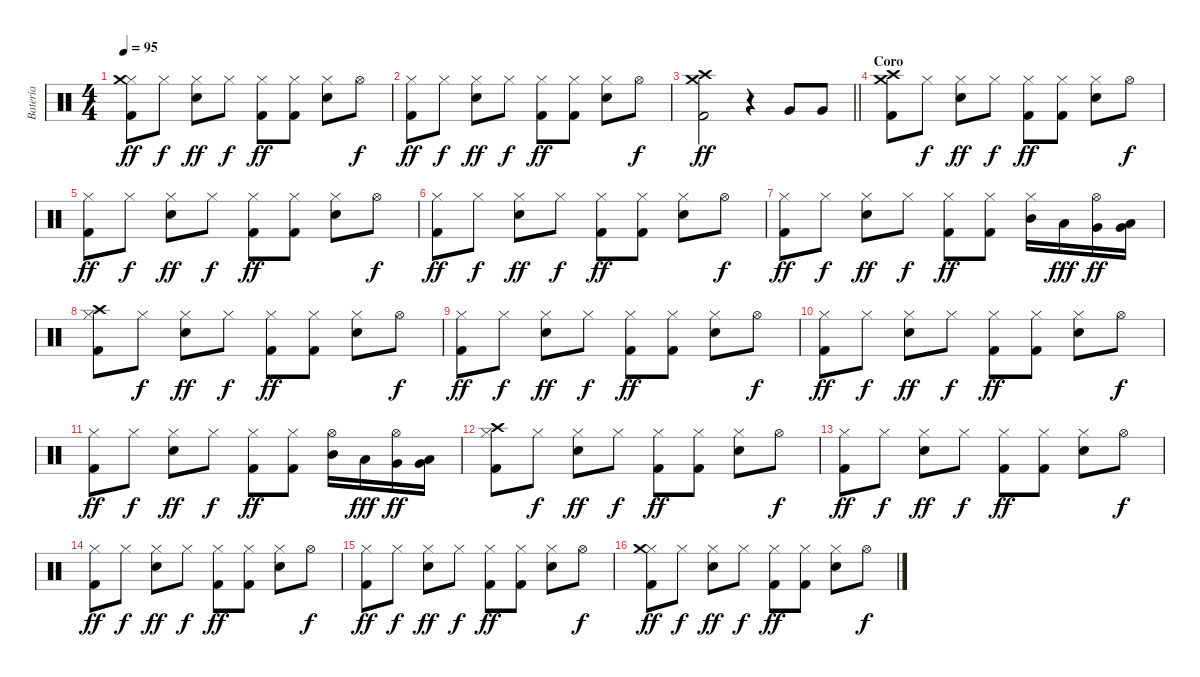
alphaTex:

\track ("Batería" "Batería") {instrument percussion}
\staff {score}
\articulation defaults
\ts (4 4)
\tempo 95
\clef neutral
\ks c
("Hi-Hat (closed)" "Crash medium (hit)" "Kick (hit) 2").8{dy ff} "Hi-Hat (closed)".8{dy f} ("Hi-Hat (closed)" "Electric Snare (hit)").8{dy ff} "Hi-Hat (closed)".8{dy f} ("Hi-Hat (closed)" "Kick (hit) 2").8{dy ff} ("Hi-Hat (closed)" "Kick (hit) 2").8 ("Hi-Hat (closed)" "Electric Snare (hit)").8 "Hi-Hat (open)".8{dy f} |
("Hi-Hat (closed)" "Kick (hit) 2").8{dy ff} "Hi-Hat (closed)".8{dy f} ("Hi-Hat (closed)" "Electric Snare (hit)").8{dy ff} "Hi-Hat (closed)".8{dy f} ("Hi-Hat (closed)" "Kick (hit) 2").8{dy ff} ("Hi-Hat (closed)" "Kick (hit) 2").8 ("Hi-Hat (closed)" "Electric Snare (hit)").8 "Hi-Hat (open)".8{dy f} |
\barLineRight lightlight
("Crash medium (hit)" "Crash high (hit)" "Kick (hit) 2").2{dy ff} r.4 "Very Low Tom (hit)".8 "Very Low Tom (hit)".8 |
\section ("" "Coro")
("Crash medium (hit)" "Crash high (hit)" "Kick (hit) 2").8 "Hi-Hat (closed)".8{dy f} ("Hi-Hat (closed)" "Electric Snare (hit)").8{dy ff} "Hi-Hat (closed)".8{dy f} ("Hi-Hat (closed)" "Kick (hit) 2").8{dy ff} ("Hi-Hat (closed)" "Kick (hit) 2").8 ("Hi-Hat (closed)" "Electric Snare (hit)").8 "Hi-Hat (open)".8{dy f} |
("Hi-Hat (closed)" "Kick (hit) 2").8{dy ff} "Hi-Hat (closed)".8{dy f} ("Hi-Hat (closed)" "Electric Snare (hit)").8{dy ff} "Hi-Hat (closed)".8{dy f} ("Hi-Hat (closed)" "Kick (hit) 2").8{dy ff} ("Hi-Hat (closed)" "Kick (hit) 2").8 ("Hi-Hat (closed)" "Electric Snare (hit)").8 "Hi-Hat (open)".8{dy f} |
("Hi-Hat (closed)" "Kick (hit) 2").8{dy ff} "Hi-Hat (closed)".8{dy f} ("Hi-Hat (closed)" "Electric Snare (hit)").8{dy ff} "Hi-Hat (closed)".8{dy f} ("Hi-Hat (closed)" "Kick (hit) 2").8{dy ff} ("Hi-Hat (closed)" "Kick (hit) 2").8 ("Hi-Hat (closed)" "Electric Snare (hit)").8 "Hi-Hat (open)".8{dy f} |
("Hi-Hat (closed)" "Kick (hit) 2").8{dy ff} "Hi-Hat (closed)".8{dy f} ("Hi-Hat (closed)" "Electric Snare (hit)").8{dy ff} "Hi-Hat (closed)".8{dy f} ("Hi-Hat (closed)" "Kick (hit) 2").8{dy ff} ("Hi-Hat (closed)" "Kick (hit) 2").8 ("Hi-Hat (closed)" "Mid Tom (hit)").16 "Low Tom (hit)".16{dy fff} ("Hi-Hat (open)" "Very Low Tom (hit)").16{dy ff} ("Very Low Tom (hit)" "Low Tom (hit)").16 |
("Hi-Hat (closed)" "Crash high (hit)" "Kick (hit) 2").8 "Hi-Hat (closed)".8{dy f} ("Hi-Hat (closed)" "Electric Snare (hit)").8{dy ff} "Hi-Hat (closed)".8{dy f} ("Hi-Hat (closed)" "Kick (hit) 2").8{dy ff} ("Hi-Hat (closed)" "Kick (hit) 2").8 ("Hi-Hat (closed)" "Electric Snare (hit)").8 "Hi-Hat (open)".8{dy f} |
("Hi-Hat (closed)" "Kick (hit) 2").8{dy ff} "Hi-Hat (closed)".8{dy f} ("Hi-Hat (closed)" "Electric Snare (hit)").8{dy ff} "Hi-Hat (closed)".8{dy f} ("Hi-Hat (closed)" "Kick (hit) 2").8{dy ff} ("Hi-Hat (closed)" "Kick (hit) 2").8 ("Hi-Hat (closed)" "Electric Snare (hit)").8 "Hi-Hat (open)".8{dy f} |
("Hi-Hat (closed)" "Kick (hit) 2").8{dy ff} "Hi-Hat (closed)".8{dy f} ("Hi-Hat (closed)" "Electric Snare (hit)").8{dy ff} "Hi-Hat (closed)".8{dy f} ("Hi-Hat (closed)" "Kick (hit) 2").8{dy ff} ("Hi-Hat (closed)" "Kick (hit) 2").8 ("Hi-Hat (closed)" "Electric Snare (hit)").8 "Hi-Hat (open)".8{dy f} |
("Hi-Hat (closed)" "Kick (hit) 2").8{dy ff} "Hi-Hat (closed)".8{dy f} ("Hi-Hat (closed)" "Electric Snare (hit)").8{dy ff} "Hi-Hat (closed)".8{dy f} ("Hi-Hat (closed)" "Kick (hit) 2").8{dy ff} ("Hi-Hat (closed)" "Kick (hit) 2").8 ("Hi-Hat (open)" "Mid Tom (hit)").16 "Low Tom (hit)".16{dy fff} ("Hi-Hat (open)" "Very Low Tom (hit)").16{dy ff} ("Very Low Tom (hit)" "Low Tom (hit)").16 |
("Hi-Hat (closed)" "Crash high (hit)" "Kick (hit) 2").8 "Hi-Hat (closed)".8{dy f} ("Hi-Hat (closed)" "Electric Snare (hit)").8{dy ff} "Hi-Hat (closed)".8{dy f} ("Hi-Hat (closed)" "Kick (hit) 2").8{dy ff} ("Hi-Hat (closed)" "Kick (hit) 2").8 ("Hi-Hat (closed)" "Electric Snare (hit)").8 "Hi-Hat (open)".8{dy f} |
("Hi-Hat (closed)" "Kick (hit) 2").8{dy ff} "Hi-Hat (closed)".8{dy f} ("Hi-Hat (closed)" "Electric Snare (hit)").8{dy ff} "Hi-Hat (closed)".8{dy f} ("Hi-Hat (closed)" "Kick (hit) 2").8{dy ff} ("Hi-Hat (closed)" "Kick (hit) 2").8 ("Hi-Hat (closed)" "Electric Snare (hit)").8 "Hi-Hat (open)".8{dy f} |
("Hi-Hat (closed)" "Kick (hit) 2").8{dy ff} "Hi-Hat (closed)".8{dy f} ("Hi-Hat (closed)" "Electric Snare (hit)").8{dy ff} "Hi-Hat (closed)".8{dy f} ("Hi-Hat (closed)" "Kick (hit) 2").8{dy ff} ("Hi-Hat (closed)" "Kick (hit) 2").8 ("Hi-Hat (closed)" "Electric Snare (hit)").8 "Hi-Hat (open)".8{dy f} |
("Hi-Hat (closed)" "Kick (hit) 2").8{dy ff} "Hi-Hat (closed)".8{dy f} ("Hi-Hat (closed)" "Electric Snare (hit)").8{dy ff} "Hi-Hat (closed)".8{dy f} ("Hi-Hat (closed)" "Kick (hit) 2").8{dy ff} ("Hi-Hat (closed)" "Kick (hit) 2").8 ("Hi-Hat (closed)" "Electric Snare (hit)").8 "Hi-Hat (open)".8{dy f} |
("Hi-Hat (closed)" "Crash medium (hit)" "Kick (hit) 2").8{dy ff} "Hi-Hat (closed)".8{dy f} ("Hi-Hat (closed)" "Electric Snare (hit)").8{dy ff} "Hi-Hat (closed)".8{dy f} ("Hi-Hat (closed)" "Kick (hit) 2").8{dy ff} ("Hi-Hat (closed)" "Kick (hit) 2").8 ("Hi-Hat (closed)" "Electric Snare (hit)").8 "Hi-Hat (open)".8{dy f}
